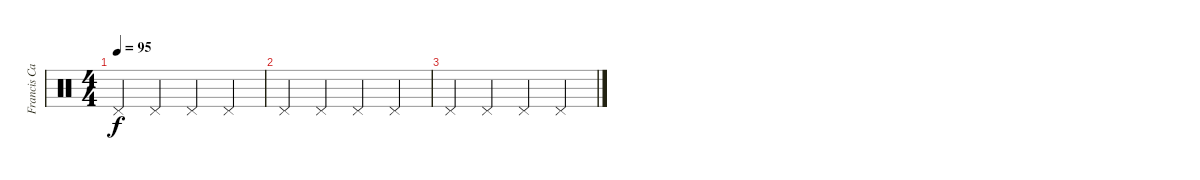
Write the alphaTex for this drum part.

\track ("Francis Cassol 2" "Francis Ca") {instrument percussion}
\staff {score}
\articulation defaults
\ts (4 4)
\tempo 95
\clef neutral
\ks c "Pedal Hi-Hat (hit)".4{dy f} "Pedal Hi-Hat (hit)".4 "Pedal Hi-Hat (hit)".4 "Pedal Hi-Hat (hit)".4
|
"Pedal Hi-Hat (hit)".4 "Pedal Hi-Hat (hit)".4 "Pedal Hi-Hat (hit)".4 "Pedal Hi-Hat (hit)".4 |
"Pedal Hi-Hat (hit)".4 "Pedal Hi-Hat (hit)".4 "Pedal Hi-Hat (hit)".4 "Pedal Hi-Hat (hit)".4
